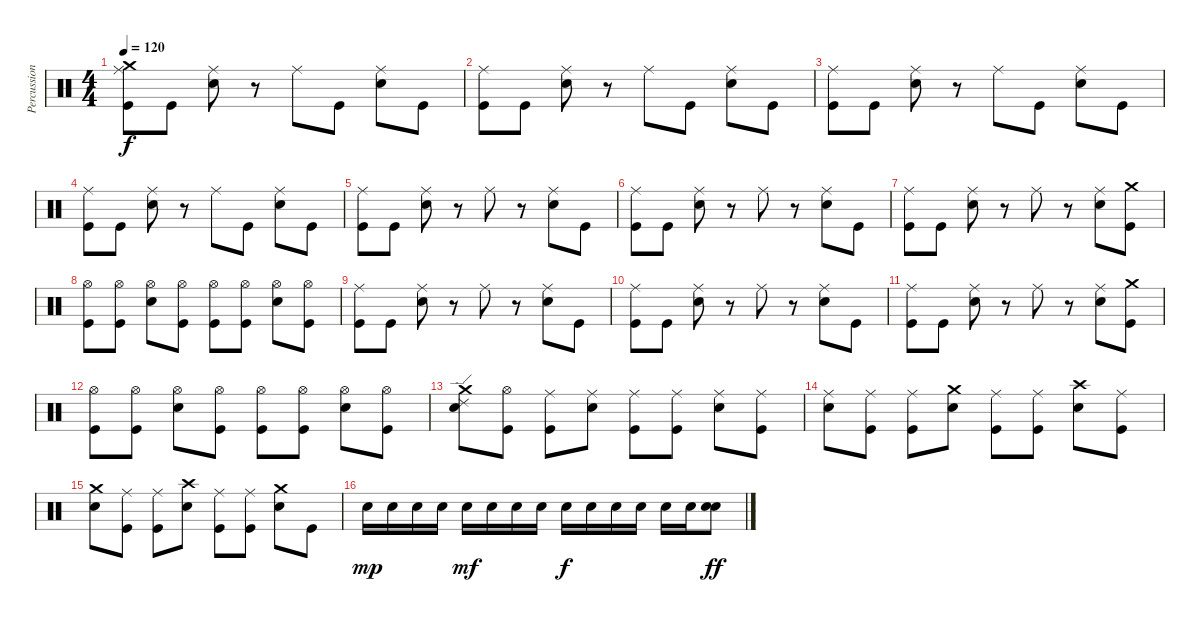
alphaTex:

\track ("Percussion" "Percussion") {instrument percussion}
\staff {score}
\articulation defaults
\ts (4 4)
\tempo 120
\clef neutral
\ks c
("Crash medium (hit)" "Ride (middle)" "Kick (hit)").8{dy f} "Kick (hit)".8 ("Ride (middle)" "Snare (hit) 2").8 r.8 "Ride (middle)".8 "Kick (hit)".8 ("Ride (middle)" "Snare (hit) 2").8 "Kick (hit)".8 |
("Ride (middle)" "Kick (hit)").8 "Kick (hit)".8 ("Ride (middle)" "Snare (hit) 2").8 r.8 "Ride (middle)".8 "Kick (hit)".8 ("Ride (middle)" "Snare (hit) 2").8 "Kick (hit)".8 |
("Ride (middle)" "Kick (hit)").8 "Kick (hit)".8 ("Ride (middle)" "Snare (hit) 2").8 r.8 "Ride (middle)".8 "Kick (hit)".8 ("Ride (middle)" "Snare (hit) 2").8 "Kick (hit)".8 |
("Ride (middle)" "Kick (hit)").8 "Kick (hit)".8 ("Ride (middle)" "Snare (hit) 2").8 r.8 "Ride (middle)".8 "Kick (hit)".8 ("Ride (middle)" "Snare (hit) 2").8 "Kick (hit)".8 |
("Ride (middle)" "Kick (hit)").8 "Kick (hit)".8 ("Ride (middle)" "Snare (hit) 2").8 r.8 "Ride (middle)".8 r.8 ("Ride (middle)" "Snare (hit) 2").8 "Kick (hit)".8 |
("Ride (middle)" "Kick (hit)").8 "Kick (hit)".8 ("Ride (middle)" "Snare (hit) 2").8 r.8 "Ride (middle)".8 r.8 ("Ride (middle)" "Snare (hit) 2").8 "Kick (hit)".8 |
("Ride (middle)" "Kick (hit)").8 "Kick (hit)".8 ("Ride (middle)" "Snare (hit) 2").8 r.8 "Ride (middle)".8 r.8 ("Ride (middle)" "Snare (hit) 2").8 ("Crash medium (hit)" "Kick (hit)").8 |
("Hi-Hat (open)" "Kick (hit)").8 ("Hi-Hat (open)" "Kick (hit)").8 ("Hi-Hat (open)" "Snare (hit) 2").8 ("Hi-Hat (open)" "Kick (hit)").8 ("Hi-Hat (open)" "Kick (hit)").8 ("Hi-Hat (open)" "Kick (hit)").8 ("Hi-Hat (open)" "Snare (hit) 2").8 ("Hi-Hat (open)" "Kick (hit)").8 |
("Ride (middle)" "Kick (hit)").8 "Kick (hit)".8 ("Ride (middle)" "Snare (hit) 2").8 r.8 "Ride (middle)".8 r.8 ("Ride (middle)" "Snare (hit) 2").8 "Kick (hit)".8 |
("Ride (middle)" "Kick (hit)").8 "Kick (hit)".8 ("Ride (middle)" "Snare (hit) 2").8 r.8 "Ride (middle)".8 r.8 ("Ride (middle)" "Snare (hit) 2").8 "Kick (hit)".8 |
("Ride (middle)" "Kick (hit)").8 "Kick (hit)".8 ("Ride (middle)" "Snare (hit) 2").8 r.8 "Ride (middle)".8 r.8 ("Ride (middle)" "Snare (hit) 2").8 ("Crash medium (hit)" "Kick (hit)").8 |
("Hi-Hat (open)" "Kick (hit)").8 ("Hi-Hat (open)" "Kick (hit)").8 ("Hi-Hat (open)" "Snare (hit) 2").8 ("Hi-Hat (open)" "Kick (hit)").8 ("Hi-Hat (open)" "Kick (hit)").8 ("Hi-Hat (open)" "Kick (hit)").8 ("Hi-Hat (open)" "Snare (hit) 2").8 ("Hi-Hat (open)" "Kick (hit)").8 |
("Ride (edge) 2" "Crash medium (hit)" "Snare (hit) 2").8 ("Hi-Hat (open)" "Kick (hit)").8 ("Ride (middle)" "Kick (hit)").8 ("Ride (middle)" "Snare (hit) 2").8 ("Ride (middle)" "Kick (hit)").8 ("Ride (middle)" "Kick (hit)").8 ("Ride (middle)" "Snare (hit) 2").8 ("Ride (middle)" "Kick (hit)").8 |
("Ride (middle)" "Snare (hit) 2").8 ("Ride (middle)" "Kick (hit)").8 ("Ride (middle)" "Kick (hit)").8 ("Crash medium (hit)" "Snare (hit) 2").8 ("Ride (middle)" "Kick (hit)").8 ("Ride (middle)" "Kick (hit)").8 ("Crash high (hit)" "Snare (hit) 2").8 ("Ride (middle)" "Kick (hit)").8 |
("Crash medium (hit)" "Snare (hit) 2").8 ("Ride (middle)" "Kick (hit)").8 ("Ride (middle)" "Kick (hit)").8 ("Crash high (hit)" "Snare (hit) 2").8 ("Ride (middle)" "Kick (hit)").8 ("Ride (middle)" "Kick (hit)").8 ("Crash medium (hit)" "Snare (hit) 2").8 "Kick (hit)".8 |
"Snare (hit) 2".16{dy mp} "Snare (hit) 2".16 "Snare (hit) 2".16 "Snare (hit) 2".16 "Snare (hit) 2".16{dy mf} "Snare (hit) 2".16 "Snare (hit) 2".16 "Snare (hit) 2".16 "Snare (hit) 2".16{dy f} "Snare (hit) 2".16 "Snare (hit) 2".16 "Snare (hit) 2".16 "Snare (hit) 2".16 "Snare (hit) 2".16 ("Snare (hit) 2" "Snare (hit) 2").8{dy ff}
